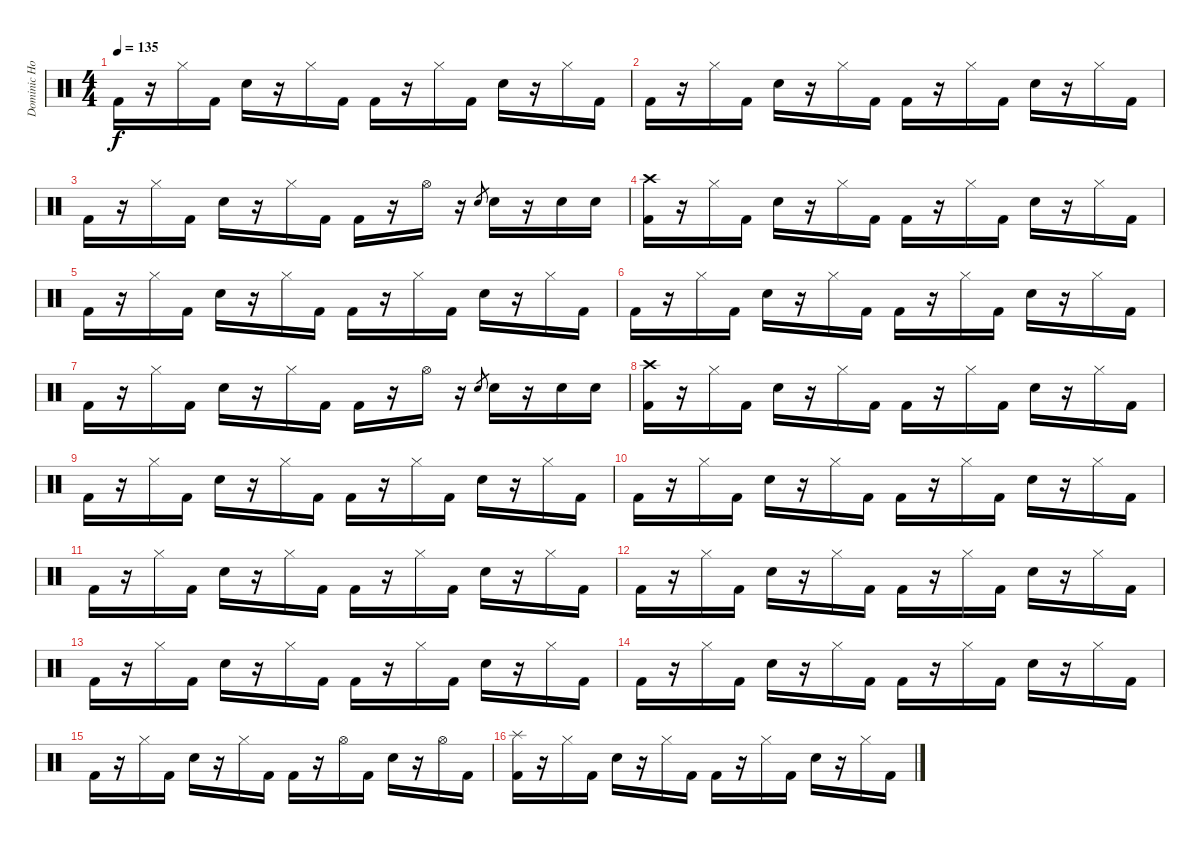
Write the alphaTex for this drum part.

\track ("Dominic Howard (Drums)" "Dominic Ho") {instrument percussion}
\staff {score}
\articulation defaults
\ts (4 4)
\tempo 135
\clef neutral
\ks c "Kick (hit) 2".16{dy f}
r.16 "Hi-Hat (closed)".16 "Kick (hit) 2".16 "Electric Snare (hit)".16 r.16 "Hi-Hat (closed)".16 "Kick (hit) 2".16 "Kick (hit) 2".16 r.16 "Hi-Hat (closed)".16 "Kick (hit) 2".16 "Electric Snare (hit)".16 r.16 "Hi-Hat (closed)".16 "Kick (hit) 2".16 |
"Kick (hit) 2".16 r.16 "Hi-Hat (closed)".16 "Kick (hit) 2".16 "Electric Snare (hit)".16 r.16 "Hi-Hat (closed)".16 "Kick (hit) 2".16 "Kick (hit) 2".16 r.16 "Hi-Hat (closed)".16 "Kick (hit) 2".16 "Electric Snare (hit)".16 r.16 "Hi-Hat (closed)".16 "Kick (hit) 2".16 |
"Kick (hit) 2".16 r.16 "Hi-Hat (closed)".16 "Kick (hit) 2".16 "Electric Snare (hit)".16 r.16 "Hi-Hat (closed)".16 "Kick (hit) 2".16 "Kick (hit) 2".16 r.16 "Hi-Hat (open)".16 r.16 "Electric Snare (hit)".8{gr} "Electric Snare (hit)".16 r.16 "Electric Snare (hit)".16 "Electric Snare (hit)".16 |
("Crash high (hit)" "Kick (hit) 2").16 r.16 "Hi-Hat (closed)".16 "Kick (hit) 2".16 "Electric Snare (hit)".16 r.16 "Hi-Hat (closed)".16 "Kick (hit) 2".16 "Kick (hit) 2".16 r.16 "Hi-Hat (closed)".16 "Kick (hit) 2".16 "Electric Snare (hit)".16 r.16 "Hi-Hat (closed)".16 "Kick (hit) 2".16 |
"Kick (hit) 2".16 r.16 "Hi-Hat (closed)".16 "Kick (hit) 2".16 "Electric Snare (hit)".16 r.16 "Hi-Hat (closed)".16 "Kick (hit) 2".16 "Kick (hit) 2".16 r.16 "Hi-Hat (closed)".16 "Kick (hit) 2".16 "Electric Snare (hit)".16 r.16 "Hi-Hat (closed)".16 "Kick (hit) 2".16 |
"Kick (hit) 2".16 r.16 "Hi-Hat (closed)".16 "Kick (hit) 2".16 "Electric Snare (hit)".16 r.16 "Hi-Hat (closed)".16 "Kick (hit) 2".16 "Kick (hit) 2".16 r.16 "Hi-Hat (closed)".16 "Kick (hit) 2".16 "Electric Snare (hit)".16 r.16 "Hi-Hat (closed)".16 "Kick (hit) 2".16 |
"Kick (hit) 2".16 r.16 "Hi-Hat (closed)".16 "Kick (hit) 2".16 "Electric Snare (hit)".16 r.16 "Hi-Hat (closed)".16 "Kick (hit) 2".16 "Kick (hit) 2".16 r.16 "Hi-Hat (open)".16 r.16 "Electric Snare (hit)".8{gr} "Electric Snare (hit)".16 r.16 "Electric Snare (hit)".16 "Electric Snare (hit)".16 |
("Crash high (hit)" "Kick (hit) 2").16 r.16 "Hi-Hat (closed)".16 "Kick (hit) 2".16 "Electric Snare (hit)".16 r.16 "Hi-Hat (closed)".16 "Kick (hit) 2".16 "Kick (hit) 2".16 r.16 "Hi-Hat (closed)".16 "Kick (hit) 2".16 "Electric Snare (hit)".16 r.16 "Hi-Hat (closed)".16 "Kick (hit) 2".16 |
"Kick (hit) 2".16 r.16 "Hi-Hat (closed)".16 "Kick (hit) 2".16 "Electric Snare (hit)".16 r.16 "Hi-Hat (closed)".16 "Kick (hit) 2".16 "Kick (hit) 2".16 r.16 "Hi-Hat (closed)".16 "Kick (hit) 2".16 "Electric Snare (hit)".16 r.16 "Hi-Hat (closed)".16 "Kick (hit) 2".16 |
"Kick (hit) 2".16 r.16 "Hi-Hat (closed)".16 "Kick (hit) 2".16 "Electric Snare (hit)".16 r.16 "Hi-Hat (closed)".16 "Kick (hit) 2".16 "Kick (hit) 2".16 r.16 "Hi-Hat (closed)".16 "Kick (hit) 2".16 "Electric Snare (hit)".16 r.16 "Hi-Hat (closed)".16 "Kick (hit) 2".16 |
"Kick (hit) 2".16 r.16 "Hi-Hat (closed)".16 "Kick (hit) 2".16 "Electric Snare (hit)".16 r.16 "Hi-Hat (closed)".16 "Kick (hit) 2".16 "Kick (hit) 2".16 r.16 "Hi-Hat (closed)".16 "Kick (hit) 2".16 "Electric Snare (hit)".16 r.16 "Hi-Hat (closed)".16 "Kick (hit) 2".16 |
"Kick (hit) 2".16 r.16 "Hi-Hat (closed)".16 "Kick (hit) 2".16 "Electric Snare (hit)".16 r.16 "Hi-Hat (closed)".16 "Kick (hit) 2".16 "Kick (hit) 2".16 r.16 "Hi-Hat (closed)".16 "Kick (hit) 2".16 "Electric Snare (hit)".16 r.16 "Hi-Hat (closed)".16 "Kick (hit) 2".16 |
"Kick (hit) 2".16 r.16 "Hi-Hat (closed)".16 "Kick (hit) 2".16 "Electric Snare (hit)".16 r.16 "Hi-Hat (closed)".16 "Kick (hit) 2".16 "Kick (hit) 2".16 r.16 "Hi-Hat (closed)".16 "Kick (hit) 2".16 "Electric Snare (hit)".16 r.16 "Hi-Hat (closed)".16 "Kick (hit) 2".16 |
"Kick (hit) 2".16 r.16 "Hi-Hat (closed)".16 "Kick (hit) 2".16 "Electric Snare (hit)".16 r.16 "Hi-Hat (closed)".16 "Kick (hit) 2".16 "Kick (hit) 2".16 r.16 "Hi-Hat (closed)".16 "Kick (hit) 2".16 "Electric Snare (hit)".16 r.16 "Hi-Hat (closed)".16 "Kick (hit) 2".16 |
"Kick (hit) 2".16 r.16 "Hi-Hat (closed)".16 "Kick (hit) 2".16 "Electric Snare (hit)".16 r.16 "Hi-Hat (closed)".16 "Kick (hit) 2".16 "Kick (hit) 2".16 r.16 "Hi-Hat (open)".16 "Kick (hit) 2".16 "Electric Snare (hit)".16 r.16 "Hi-Hat (open)".16 "Kick (hit) 2".16 |
("Splash (hit)" "Kick (hit) 2").16 r.16 "Hi-Hat (closed)".16 "Kick (hit) 2".16 "Electric Snare (hit)".16 r.16 "Hi-Hat (closed)".16 "Kick (hit) 2".16 "Kick (hit) 2".16 r.16 "Hi-Hat (closed)".16 "Kick (hit) 2".16 "Electric Snare (hit)".16 r.16 "Hi-Hat (closed)".16 "Kick (hit) 2".16
